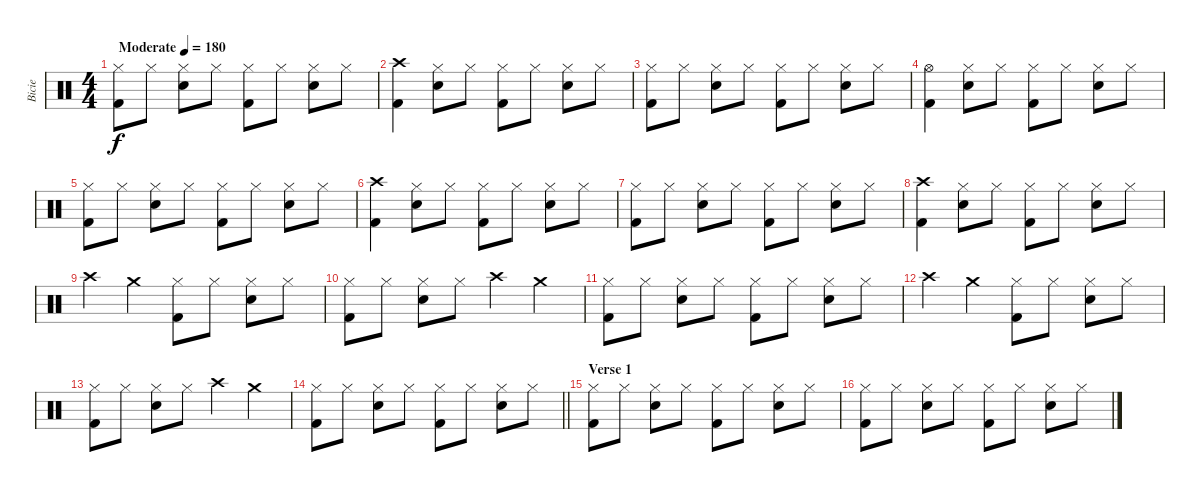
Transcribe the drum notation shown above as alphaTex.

\track ("Bicie" "Bicie") {instrument percussion}
\staff {score}
\articulation defaults
\ts (4 4)
\tempo (180 "Moderate")
\clef neutral
\ks c
("Hi-Hat (closed)" "Kick (hit) 2").8{dy f} "Hi-Hat (closed)".8 ("Hi-Hat (closed)" "Snare (hit) 2").8 "Hi-Hat (closed)".8 ("Hi-Hat (closed)" "Kick (hit) 2").8 "Hi-Hat (closed)".8 ("Hi-Hat (closed)" "Snare (hit) 2").8 "Hi-Hat (closed)".8 |
("Kick (hit) 2" "Crash high (hit)").4 ("Hi-Hat (closed)" "Snare (hit) 2").8 "Hi-Hat (closed)".8 ("Hi-Hat (closed)" "Kick (hit) 2").8 "Hi-Hat (closed)".8 ("Hi-Hat (closed)" "Snare (hit) 2").8 "Hi-Hat (closed)".8 |
("Hi-Hat (closed)" "Kick (hit) 2").8 "Hi-Hat (closed)".8 ("Hi-Hat (closed)" "Snare (hit) 2").8 "Hi-Hat (closed)".8 ("Hi-Hat (closed)" "Kick (hit) 2").8 "Hi-Hat (closed)".8 ("Hi-Hat (closed)" "Snare (hit) 2").8 "Hi-Hat (closed)".8 |
("Kick (hit) 2" "Hi-Hat (open)").4 ("Hi-Hat (closed)" "Snare (hit) 2").8 "Hi-Hat (closed)".8 ("Hi-Hat (closed)" "Kick (hit) 2").8 "Hi-Hat (closed)".8 ("Hi-Hat (closed)" "Snare (hit) 2").8 "Hi-Hat (closed)".8 |
("Hi-Hat (closed)" "Kick (hit) 2").8 "Hi-Hat (closed)".8 ("Hi-Hat (closed)" "Snare (hit) 2").8 "Hi-Hat (closed)".8 ("Hi-Hat (closed)" "Kick (hit) 2").8 "Hi-Hat (closed)".8 ("Hi-Hat (closed)" "Snare (hit) 2").8 "Hi-Hat (closed)".8 |
("Kick (hit) 2" "Crash high (hit)").4 ("Hi-Hat (closed)" "Snare (hit) 2").8 "Hi-Hat (closed)".8 ("Hi-Hat (closed)" "Kick (hit) 2").8 "Hi-Hat (closed)".8 ("Hi-Hat (closed)" "Snare (hit) 2").8 "Hi-Hat (closed)".8 |
("Hi-Hat (closed)" "Kick (hit) 2").8 "Hi-Hat (closed)".8 ("Hi-Hat (closed)" "Snare (hit) 2").8 "Hi-Hat (closed)".8 ("Hi-Hat (closed)" "Kick (hit) 2").8 "Hi-Hat (closed)".8 ("Hi-Hat (closed)" "Snare (hit) 2").8 "Hi-Hat (closed)".8 |
("Kick (hit) 2" "Crash high (hit)").4 ("Hi-Hat (closed)" "Snare (hit) 2").8 "Hi-Hat (closed)".8 ("Hi-Hat (closed)" "Kick (hit) 2").8 "Hi-Hat (closed)".8 ("Hi-Hat (closed)" "Snare (hit) 2").8 "Hi-Hat (closed)".8 |
"Crash high (hit)".4 "Crash medium (hit)".4 ("Hi-Hat (closed)" "Kick (hit) 2").8 "Hi-Hat (closed)".8 ("Hi-Hat (closed)" "Snare (hit) 2").8 "Hi-Hat (closed)".8 |
("Hi-Hat (closed)" "Kick (hit) 2").8 "Hi-Hat (closed)".8 ("Hi-Hat (closed)" "Snare (hit) 2").8 "Hi-Hat (closed)".8 "Crash high (hit)".4 "Crash medium (hit)".4 |
("Hi-Hat (closed)" "Kick (hit) 2").8 "Hi-Hat (closed)".8 ("Hi-Hat (closed)" "Snare (hit) 2").8 "Hi-Hat (closed)".8 ("Hi-Hat (closed)" "Kick (hit) 2").8 "Hi-Hat (closed)".8 ("Hi-Hat (closed)" "Snare (hit) 2").8 "Hi-Hat (closed)".8 |
"Crash high (hit)".4 "Crash medium (hit)".4 ("Hi-Hat (closed)" "Kick (hit) 2").8 "Hi-Hat (closed)".8 ("Hi-Hat (closed)" "Snare (hit) 2").8 "Hi-Hat (closed)".8 |
("Hi-Hat (closed)" "Kick (hit) 2").8 "Hi-Hat (closed)".8 ("Hi-Hat (closed)" "Snare (hit) 2").8 "Hi-Hat (closed)".8 "Crash high (hit)".4 "Crash medium (hit)".4 |
\barLineRight lightlight
("Hi-Hat (closed)" "Kick (hit) 2").8 "Hi-Hat (closed)".8 ("Hi-Hat (closed)" "Snare (hit) 2").8 "Hi-Hat (closed)".8 ("Hi-Hat (closed)" "Kick (hit) 2").8 "Hi-Hat (closed)".8 ("Hi-Hat (closed)" "Snare (hit) 2").8 "Hi-Hat (closed)".8 |
\section ("" "Verse 1")
("Hi-Hat (closed)" "Kick (hit) 2").8 "Hi-Hat (closed)".8 ("Hi-Hat (closed)" "Snare (hit) 2").8 "Hi-Hat (closed)".8 ("Hi-Hat (closed)" "Kick (hit) 2").8 "Hi-Hat (closed)".8 ("Hi-Hat (closed)" "Snare (hit) 2").8 "Hi-Hat (closed)".8 |
("Hi-Hat (closed)" "Kick (hit) 2").8 "Hi-Hat (closed)".8 ("Hi-Hat (closed)" "Snare (hit) 2").8 "Hi-Hat (closed)".8 ("Hi-Hat (closed)" "Kick (hit) 2").8 "Hi-Hat (closed)".8 ("Hi-Hat (closed)" "Snare (hit) 2").8 "Hi-Hat (closed)".8
